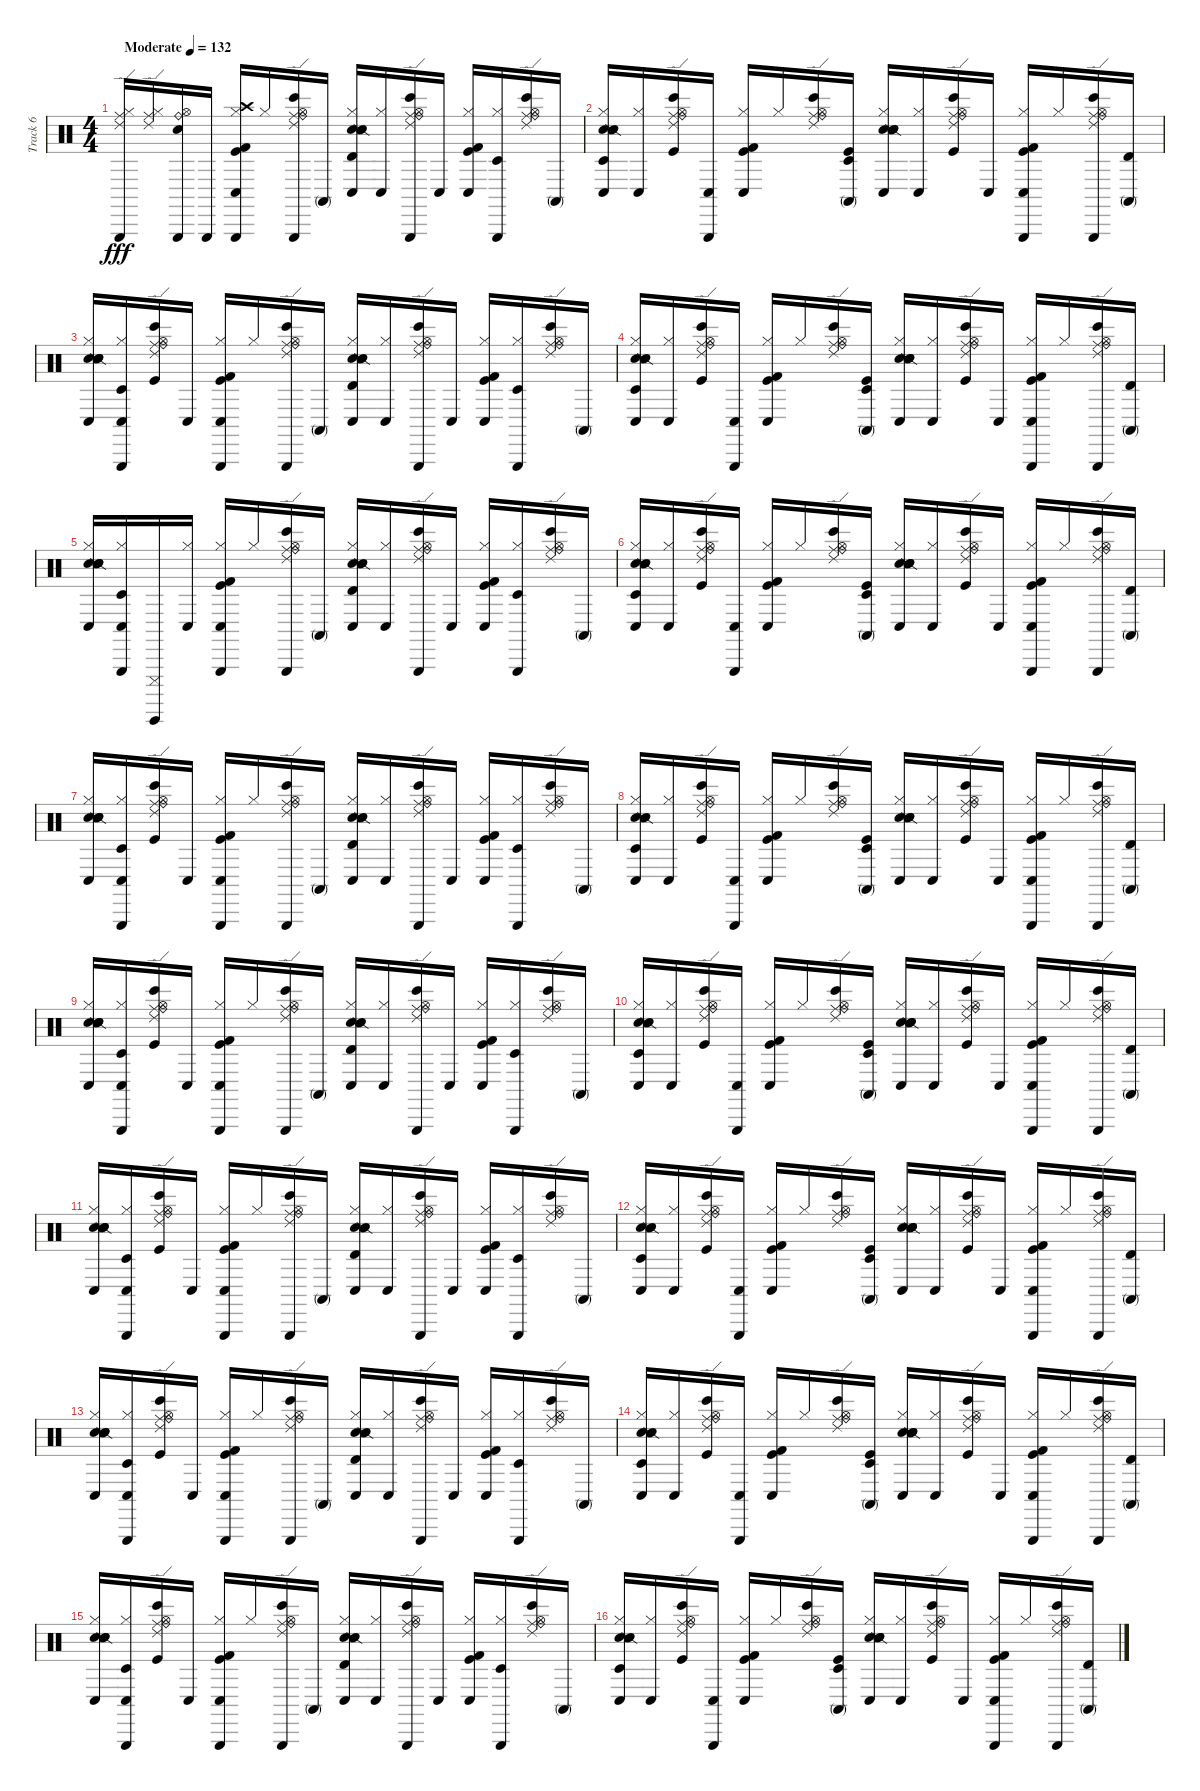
\track ("Track 6" "Track 6") {instrument percussion}
\staff {score}
\articulation defaults
\ts (4 4)
\tempo (132 "Moderate")
\clef neutral
\ks c
("Triangle (hit)" "Hi-Hat (closed)" "Ride (middle)" "Ride (edge) 2").16{dy fff} ("Hi-Hat (closed)" "Ride (edge) 2" "Ride (middle)").16 ("Triangle (hit)" "Hand Clap (hit)" "Hi-Hat (open)" "Ride (bell)").16 "Triangle (hit)".16 ("Hi-Hat (closed)" "Kick (hit)" "Kick (hit) 2" "Conga low (hit)" "Triangle (hit)" "Crash high (hit)").16 "Hi-Hat (closed)".16 ("Hi-Hat (open)" "Bongo High (hit)" "Ride (middle)" "Ride (edge) 2" "Ride (bell)" "Triangle (hit)").16 "Conga high (mute)".16 ("Hi-Hat (closed)" "Metronome (bell)" "Snare (side stick) 2" "Electric Snare (hit)" "Conga low (hit)" "Timbale high (hit)").16 ("Hi-Hat (closed)" "Conga low (hit)").16 ("Hi-Hat (open)" "Bongo High (hit)" "Ride (middle)" "Ride (edge) 2" "Ride (bell)" "Triangle (hit)").16 "Conga low (hit)".16 ("Hi-Hat (closed)" "Kick (hit)" "Kick (hit) 2" "Conga low (hit)").16 ("Hi-Hat (closed)" "Timbale low (hit)" "Triangle (hit)").16 ("Hi-Hat (open)" "Bongo High (hit)" "Ride (middle)" "Ride (edge) 2" "Ride (bell)").16 "Conga high (mute)".16 |
("Hi-Hat (closed)" "Metronome (bell)" "Snare (side stick) 2" "Electric Snare (hit)" "Conga low (hit)" "Timbale low (hit)").16 ("Hi-Hat (closed)" "Conga low (hit)").16 ("Hi-Hat (open)" "Kick (hit)" "Bongo High (hit)" "Ride (middle)" "Ride (edge) 2" "Ride (bell)").16 ("Conga low (hit)" "Triangle (hit)").16 ("Kick (hit)" "Kick (hit) 2" "Hi-Hat (closed)" "Conga low (hit)").16 "Hi-Hat (closed)".16 ("Hi-Hat (open)" "Bongo High (hit)" "Ride (middle)" "Ride (edge) 2" "Ride (bell)").16 ("Kick (hit)" "Conga high (mute)" "Timbale low (hit)").16 ("Metronome (bell)" "Snare (side stick) 2" "Electric Snare (hit)" "Hi-Hat (closed)" "Conga low (hit)" "Hand Clap (hit)").16 ("Hi-Hat (closed)" "Conga low (hit)").16 ("Kick (hit)" "Hi-Hat (open)" "Bongo High (hit)" "Ride (middle)" "Ride (edge) 2" "Ride (bell)").16 "Conga low (hit)".16 ("Kick (hit)" "Kick (hit) 2" "Hi-Hat (closed)" "Conga low (hit)" "Triangle (hit)").16 "Hi-Hat (closed)".16 ("Hi-Hat (open)" "Bongo High (hit)" "Ride (middle)" "Ride (edge) 2" "Ride (bell)" "Triangle (hit)").16 ("Conga high (mute)" "Timbale high (hit)").16 |
("Metronome (bell)" "Snare (side stick) 2" "Electric Snare (hit)" "Hi-Hat (closed)" "Conga low (hit)" "Hand Clap (hit)").16 ("Hi-Hat (closed)" "Conga low (hit)" "Timbale low (hit)" "Triangle (hit)").16 ("Kick (hit)" "Hi-Hat (open)" "Bongo High (hit)" "Ride (middle)" "Ride (edge) 2" "Ride (bell)").16 "Conga low (hit)".16 ("Hi-Hat (closed)" "Kick (hit)" "Kick (hit) 2" "Conga low (hit)" "Triangle (hit)").16 "Hi-Hat (closed)".16 ("Hi-Hat (open)" "Bongo High (hit)" "Ride (middle)" "Ride (edge) 2" "Ride (bell)" "Triangle (hit)").16 "Conga high (mute)".16 ("Hi-Hat (closed)" "Metronome (bell)" "Snare (side stick) 2" "Electric Snare (hit)" "Conga low (hit)" "Timbale high (hit)").16 ("Hi-Hat (closed)" "Conga low (hit)").16 ("Hi-Hat (open)" "Bongo High (hit)" "Ride (middle)" "Ride (edge) 2" "Ride (bell)" "Triangle (hit)").16 "Conga low (hit)".16 ("Hi-Hat (closed)" "Kick (hit)" "Kick (hit) 2" "Conga low (hit)").16 ("Hi-Hat (closed)" "Timbale low (hit)" "Triangle (hit)").16 ("Hi-Hat (open)" "Bongo High (hit)" "Ride (middle)" "Ride (edge) 2" "Ride (bell)").16 "Conga high (mute)".16 |
("Hi-Hat (closed)" "Metronome (bell)" "Snare (side stick) 2" "Electric Snare (hit)" "Conga low (hit)" "Timbale low (hit)").16 ("Hi-Hat (closed)" "Conga low (hit)").16 ("Hi-Hat (open)" "Kick (hit)" "Bongo High (hit)" "Ride (middle)" "Ride (edge) 2" "Ride (bell)").16 ("Conga low (hit)" "Triangle (hit)").16 ("Kick (hit)" "Kick (hit) 2" "Hi-Hat (closed)" "Conga low (hit)").16 "Hi-Hat (closed)".16 ("Hi-Hat (open)" "Bongo High (hit)" "Ride (middle)" "Ride (edge) 2" "Ride (bell)").16 ("Kick (hit)" "Conga high (mute)" "Timbale low (hit)").16 ("Metronome (bell)" "Snare (side stick) 2" "Electric Snare (hit)" "Hi-Hat (closed)" "Conga low (hit)" "Hand Clap (hit)").16 ("Hi-Hat (closed)" "Conga low (hit)").16 ("Kick (hit)" "Hi-Hat (open)" "Bongo High (hit)" "Ride (middle)" "Ride (edge) 2" "Ride (bell)").16 "Conga low (hit)".16 ("Kick (hit)" "Kick (hit) 2" "Hi-Hat (closed)" "Conga low (hit)" "Triangle (hit)").16 "Hi-Hat (closed)".16 ("Hi-Hat (open)" "Bongo High (hit)" "Ride (middle)" "Ride (edge) 2" "Ride (bell)" "Triangle (hit)").16 ("Conga high (mute)" "Timbale high (hit)").16 |
("Metronome (bell)" "Snare (side stick) 2" "Electric Snare (hit)" "Hi-Hat (closed)" "Conga low (hit)" "Hand Clap (hit)").16 ("Hi-Hat (closed)" "Conga low (hit)" "Timbale low (hit)" "Triangle (hit)").16 ("Cuica (mute)" "Guiro (hit)").16 ("Conga low (hit)" "Hi-Hat (closed)").16 ("Hi-Hat (closed)" "Kick (hit)" "Kick (hit) 2" "Conga low (hit)" "Triangle (hit)").16 "Hi-Hat (closed)".16 ("Hi-Hat (open)" "Bongo High (hit)" "Ride (middle)" "Ride (edge) 2" "Ride (bell)" "Triangle (hit)").16 "Conga high (mute)".16 ("Hi-Hat (closed)" "Metronome (bell)" "Snare (side stick) 2" "Electric Snare (hit)" "Conga low (hit)" "Timbale high (hit)").16 ("Hi-Hat (closed)" "Conga low (hit)").16 ("Hi-Hat (open)" "Bongo High (hit)" "Ride (middle)" "Ride (edge) 2" "Ride (bell)" "Triangle (hit)").16 "Conga low (hit)".16 ("Hi-Hat (closed)" "Kick (hit)" "Kick (hit) 2" "Conga low (hit)").16 ("Hi-Hat (closed)" "Timbale low (hit)" "Triangle (hit)").16 ("Hi-Hat (open)" "Bongo High (hit)" "Ride (middle)" "Ride (edge) 2" "Ride (bell)").16 "Conga high (mute)".16 |
("Hi-Hat (closed)" "Metronome (bell)" "Snare (side stick) 2" "Electric Snare (hit)" "Conga low (hit)" "Timbale low (hit)").16 ("Hi-Hat (closed)" "Conga low (hit)").16 ("Hi-Hat (open)" "Kick (hit)" "Bongo High (hit)" "Ride (middle)" "Ride (edge) 2" "Ride (bell)").16 ("Conga low (hit)" "Triangle (hit)").16 ("Kick (hit)" "Kick (hit) 2" "Hi-Hat (closed)" "Conga low (hit)").16 "Hi-Hat (closed)".16 ("Hi-Hat (open)" "Bongo High (hit)" "Ride (middle)" "Ride (edge) 2" "Ride (bell)").16 ("Kick (hit)" "Conga high (mute)" "Timbale low (hit)").16 ("Metronome (bell)" "Snare (side stick) 2" "Electric Snare (hit)" "Hi-Hat (closed)" "Conga low (hit)" "Hand Clap (hit)").16 ("Hi-Hat (closed)" "Conga low (hit)").16 ("Kick (hit)" "Hi-Hat (open)" "Bongo High (hit)" "Ride (middle)" "Ride (edge) 2" "Ride (bell)").16 "Conga low (hit)".16 ("Kick (hit)" "Kick (hit) 2" "Hi-Hat (closed)" "Conga low (hit)" "Triangle (hit)").16 "Hi-Hat (closed)".16 ("Hi-Hat (open)" "Bongo High (hit)" "Ride (middle)" "Ride (edge) 2" "Ride (bell)" "Triangle (hit)").16 ("Conga high (mute)" "Timbale high (hit)").16 |
("Metronome (bell)" "Snare (side stick) 2" "Electric Snare (hit)" "Hi-Hat (closed)" "Conga low (hit)" "Hand Clap (hit)").16 ("Hi-Hat (closed)" "Conga low (hit)" "Timbale low (hit)" "Triangle (hit)").16 ("Kick (hit)" "Hi-Hat (open)" "Bongo High (hit)" "Ride (middle)" "Ride (edge) 2" "Ride (bell)").16 "Conga low (hit)".16 ("Hi-Hat (closed)" "Kick (hit)" "Kick (hit) 2" "Conga low (hit)" "Triangle (hit)").16 "Hi-Hat (closed)".16 ("Hi-Hat (open)" "Bongo High (hit)" "Ride (middle)" "Ride (edge) 2" "Ride (bell)" "Triangle (hit)").16 "Conga high (mute)".16 ("Hi-Hat (closed)" "Metronome (bell)" "Snare (side stick) 2" "Electric Snare (hit)" "Conga low (hit)" "Timbale high (hit)").16 ("Hi-Hat (closed)" "Conga low (hit)").16 ("Hi-Hat (open)" "Bongo High (hit)" "Ride (middle)" "Ride (edge) 2" "Ride (bell)" "Triangle (hit)").16 "Conga low (hit)".16 ("Hi-Hat (closed)" "Kick (hit)" "Kick (hit) 2" "Conga low (hit)").16 ("Hi-Hat (closed)" "Timbale low (hit)" "Triangle (hit)").16 ("Hi-Hat (open)" "Bongo High (hit)" "Ride (middle)" "Ride (edge) 2" "Ride (bell)").16 "Conga high (mute)".16 |
("Hi-Hat (closed)" "Metronome (bell)" "Snare (side stick) 2" "Electric Snare (hit)" "Conga low (hit)" "Timbale low (hit)").16 ("Hi-Hat (closed)" "Conga low (hit)").16 ("Hi-Hat (open)" "Kick (hit)" "Bongo High (hit)" "Ride (middle)" "Ride (edge) 2" "Ride (bell)").16 ("Conga low (hit)" "Triangle (hit)").16 ("Kick (hit)" "Kick (hit) 2" "Hi-Hat (closed)" "Conga low (hit)").16 "Hi-Hat (closed)".16 ("Hi-Hat (open)" "Bongo High (hit)" "Ride (middle)" "Ride (edge) 2" "Ride (bell)").16 ("Kick (hit)" "Conga high (mute)" "Timbale low (hit)").16 ("Metronome (bell)" "Snare (side stick) 2" "Electric Snare (hit)" "Hi-Hat (closed)" "Conga low (hit)" "Hand Clap (hit)").16 ("Hi-Hat (closed)" "Conga low (hit)").16 ("Kick (hit)" "Hi-Hat (open)" "Bongo High (hit)" "Ride (middle)" "Ride (edge) 2" "Ride (bell)").16 "Conga low (hit)".16 ("Kick (hit)" "Kick (hit) 2" "Hi-Hat (closed)" "Conga low (hit)" "Triangle (hit)").16 "Hi-Hat (closed)".16 ("Hi-Hat (open)" "Bongo High (hit)" "Ride (middle)" "Ride (edge) 2" "Ride (bell)" "Triangle (hit)").16 ("Conga high (mute)" "Timbale high (hit)").16 |
("Metronome (bell)" "Snare (side stick) 2" "Electric Snare (hit)" "Hi-Hat (closed)" "Conga low (hit)" "Hand Clap (hit)").16 ("Hi-Hat (closed)" "Conga low (hit)" "Timbale low (hit)" "Triangle (hit)").16 ("Kick (hit)" "Hi-Hat (open)" "Bongo High (hit)" "Ride (middle)" "Ride (edge) 2" "Ride (bell)").16 "Conga low (hit)".16 ("Hi-Hat (closed)" "Kick (hit)" "Kick (hit) 2" "Conga low (hit)" "Triangle (hit)").16 "Hi-Hat (closed)".16 ("Hi-Hat (open)" "Bongo High (hit)" "Ride (middle)" "Ride (edge) 2" "Ride (bell)" "Triangle (hit)").16 "Conga high (mute)".16 ("Hi-Hat (closed)" "Metronome (bell)" "Snare (side stick) 2" "Electric Snare (hit)" "Conga low (hit)" "Timbale high (hit)").16 ("Hi-Hat (closed)" "Conga low (hit)").16 ("Hi-Hat (open)" "Bongo High (hit)" "Ride (middle)" "Ride (edge) 2" "Ride (bell)" "Triangle (hit)").16 "Conga low (hit)".16 ("Hi-Hat (closed)" "Kick (hit)" "Kick (hit) 2" "Conga low (hit)").16 ("Hi-Hat (closed)" "Timbale low (hit)" "Triangle (hit)").16 ("Hi-Hat (open)" "Bongo High (hit)" "Ride (middle)" "Ride (edge) 2" "Ride (bell)").16 "Conga high (mute)".16 |
("Hi-Hat (closed)" "Metronome (bell)" "Snare (side stick) 2" "Electric Snare (hit)" "Conga low (hit)" "Timbale low (hit)").16 ("Hi-Hat (closed)" "Conga low (hit)").16 ("Hi-Hat (open)" "Kick (hit)" "Bongo High (hit)" "Ride (middle)" "Ride (edge) 2" "Ride (bell)").16 ("Conga low (hit)" "Triangle (hit)").16 ("Kick (hit)" "Kick (hit) 2" "Hi-Hat (closed)" "Conga low (hit)").16 "Hi-Hat (closed)".16 ("Hi-Hat (open)" "Bongo High (hit)" "Ride (middle)" "Ride (edge) 2" "Ride (bell)").16 ("Kick (hit)" "Conga high (mute)" "Timbale low (hit)").16 ("Metronome (bell)" "Snare (side stick) 2" "Electric Snare (hit)" "Hi-Hat (closed)" "Conga low (hit)" "Hand Clap (hit)").16 ("Hi-Hat (closed)" "Conga low (hit)").16 ("Kick (hit)" "Hi-Hat (open)" "Bongo High (hit)" "Ride (middle)" "Ride (edge) 2" "Ride (bell)").16 "Conga low (hit)".16 ("Kick (hit)" "Kick (hit) 2" "Hi-Hat (closed)" "Conga low (hit)" "Triangle (hit)").16 "Hi-Hat (closed)".16 ("Hi-Hat (open)" "Bongo High (hit)" "Ride (middle)" "Ride (edge) 2" "Ride (bell)" "Triangle (hit)").16 ("Conga high (mute)" "Timbale high (hit)").16 |
("Metronome (bell)" "Snare (side stick) 2" "Electric Snare (hit)" "Hi-Hat (closed)" "Conga low (hit)" "Hand Clap (hit)").16 ("Hi-Hat (closed)" "Conga low (hit)" "Timbale low (hit)" "Triangle (hit)").16 ("Kick (hit)" "Hi-Hat (open)" "Bongo High (hit)" "Ride (middle)" "Ride (edge) 2" "Ride (bell)").16 "Conga low (hit)".16 ("Hi-Hat (closed)" "Kick (hit)" "Kick (hit) 2" "Conga low (hit)" "Triangle (hit)").16 "Hi-Hat (closed)".16 ("Hi-Hat (open)" "Bongo High (hit)" "Ride (middle)" "Ride (edge) 2" "Ride (bell)" "Triangle (hit)").16 "Conga high (mute)".16 ("Hi-Hat (closed)" "Metronome (bell)" "Snare (side stick) 2" "Electric Snare (hit)" "Conga low (hit)" "Timbale high (hit)").16 ("Hi-Hat (closed)" "Conga low (hit)").16 ("Hi-Hat (open)" "Bongo High (hit)" "Ride (middle)" "Ride (edge) 2" "Ride (bell)" "Triangle (hit)").16 "Conga low (hit)".16 ("Hi-Hat (closed)" "Kick (hit)" "Kick (hit) 2" "Conga low (hit)").16 ("Hi-Hat (closed)" "Timbale low (hit)" "Triangle (hit)").16 ("Hi-Hat (open)" "Bongo High (hit)" "Ride (middle)" "Ride (edge) 2" "Ride (bell)").16 "Conga high (mute)".16 |
("Hi-Hat (closed)" "Metronome (bell)" "Snare (side stick) 2" "Electric Snare (hit)" "Conga low (hit)" "Timbale low (hit)").16 ("Hi-Hat (closed)" "Conga low (hit)").16 ("Hi-Hat (open)" "Kick (hit)" "Bongo High (hit)" "Ride (middle)" "Ride (edge) 2" "Ride (bell)").16 ("Conga low (hit)" "Triangle (hit)").16 ("Kick (hit)" "Kick (hit) 2" "Hi-Hat (closed)" "Conga low (hit)").16 "Hi-Hat (closed)".16 ("Hi-Hat (open)" "Bongo High (hit)" "Ride (middle)" "Ride (edge) 2" "Ride (bell)").16 ("Kick (hit)" "Conga high (mute)" "Timbale low (hit)").16 ("Metronome (bell)" "Snare (side stick) 2" "Electric Snare (hit)" "Hi-Hat (closed)" "Conga low (hit)" "Hand Clap (hit)").16 ("Hi-Hat (closed)" "Conga low (hit)").16 ("Kick (hit)" "Hi-Hat (open)" "Bongo High (hit)" "Ride (middle)" "Ride (edge) 2" "Ride (bell)").16 "Conga low (hit)".16 ("Kick (hit)" "Kick (hit) 2" "Hi-Hat (closed)" "Conga low (hit)" "Triangle (hit)").16 "Hi-Hat (closed)".16 ("Hi-Hat (open)" "Bongo High (hit)" "Ride (middle)" "Ride (edge) 2" "Ride (bell)" "Triangle (hit)").16 ("Conga high (mute)" "Timbale high (hit)").16 |
("Metronome (bell)" "Snare (side stick) 2" "Electric Snare (hit)" "Hi-Hat (closed)" "Conga low (hit)" "Hand Clap (hit)").16 ("Hi-Hat (closed)" "Conga low (hit)" "Timbale low (hit)" "Triangle (hit)").16 ("Kick (hit)" "Hi-Hat (open)" "Bongo High (hit)" "Ride (middle)" "Ride (edge) 2" "Ride (bell)").16 "Conga low (hit)".16 ("Hi-Hat (closed)" "Kick (hit)" "Kick (hit) 2" "Conga low (hit)" "Triangle (hit)").16 "Hi-Hat (closed)".16 ("Hi-Hat (open)" "Bongo High (hit)" "Ride (middle)" "Ride (edge) 2" "Ride (bell)" "Triangle (hit)").16 "Conga high (mute)".16 ("Hi-Hat (closed)" "Metronome (bell)" "Snare (side stick) 2" "Electric Snare (hit)" "Conga low (hit)" "Timbale high (hit)").16 ("Hi-Hat (closed)" "Conga low (hit)").16 ("Hi-Hat (open)" "Bongo High (hit)" "Ride (middle)" "Ride (edge) 2" "Ride (bell)" "Triangle (hit)").16 "Conga low (hit)".16 ("Hi-Hat (closed)" "Kick (hit)" "Kick (hit) 2" "Conga low (hit)").16 ("Hi-Hat (closed)" "Timbale low (hit)" "Triangle (hit)").16 ("Hi-Hat (open)" "Bongo High (hit)" "Ride (middle)" "Ride (edge) 2" "Ride (bell)").16 "Conga high (mute)".16 |
("Hi-Hat (closed)" "Metronome (bell)" "Snare (side stick) 2" "Electric Snare (hit)" "Conga low (hit)" "Timbale low (hit)").16 ("Hi-Hat (closed)" "Conga low (hit)").16 ("Hi-Hat (open)" "Kick (hit)" "Bongo High (hit)" "Ride (middle)" "Ride (edge) 2" "Ride (bell)").16 ("Conga low (hit)" "Triangle (hit)").16 ("Kick (hit)" "Kick (hit) 2" "Hi-Hat (closed)" "Conga low (hit)").16 "Hi-Hat (closed)".16 ("Hi-Hat (open)" "Bongo High (hit)" "Ride (middle)" "Ride (edge) 2" "Ride (bell)").16 ("Kick (hit)" "Conga high (mute)" "Timbale low (hit)").16 ("Metronome (bell)" "Snare (side stick) 2" "Electric Snare (hit)" "Hi-Hat (closed)" "Conga low (hit)" "Hand Clap (hit)").16 ("Hi-Hat (closed)" "Conga low (hit)").16 ("Kick (hit)" "Hi-Hat (open)" "Bongo High (hit)" "Ride (middle)" "Ride (edge) 2" "Ride (bell)").16 "Conga low (hit)".16 ("Kick (hit)" "Kick (hit) 2" "Hi-Hat (closed)" "Conga low (hit)" "Triangle (hit)").16 "Hi-Hat (closed)".16 ("Hi-Hat (open)" "Bongo High (hit)" "Ride (middle)" "Ride (edge) 2" "Ride (bell)" "Triangle (hit)").16 ("Conga high (mute)" "Timbale high (hit)").16 |
("Metronome (bell)" "Snare (side stick) 2" "Electric Snare (hit)" "Hi-Hat (closed)" "Conga low (hit)" "Hand Clap (hit)").16 ("Hi-Hat (closed)" "Conga low (hit)" "Timbale low (hit)" "Triangle (hit)").16 ("Kick (hit)" "Hi-Hat (open)" "Bongo High (hit)" "Ride (middle)" "Ride (edge) 2" "Ride (bell)").16 "Conga low (hit)".16 ("Hi-Hat (closed)" "Kick (hit)" "Kick (hit) 2" "Conga low (hit)" "Triangle (hit)").16 "Hi-Hat (closed)".16 ("Hi-Hat (open)" "Bongo High (hit)" "Ride (middle)" "Ride (edge) 2" "Ride (bell)" "Triangle (hit)").16 "Conga high (mute)".16 ("Hi-Hat (closed)" "Metronome (bell)" "Snare (side stick) 2" "Electric Snare (hit)" "Conga low (hit)" "Timbale high (hit)").16 ("Hi-Hat (closed)" "Conga low (hit)").16 ("Hi-Hat (open)" "Bongo High (hit)" "Ride (middle)" "Ride (edge) 2" "Ride (bell)" "Triangle (hit)").16 "Conga low (hit)".16 ("Hi-Hat (closed)" "Kick (hit)" "Kick (hit) 2" "Conga low (hit)").16 ("Hi-Hat (closed)" "Timbale low (hit)" "Triangle (hit)").16 ("Hi-Hat (open)" "Bongo High (hit)" "Ride (middle)" "Ride (edge) 2" "Ride (bell)").16 "Conga high (mute)".16 |
("Hi-Hat (closed)" "Metronome (bell)" "Snare (side stick) 2" "Electric Snare (hit)" "Conga low (hit)" "Timbale low (hit)").16 ("Hi-Hat (closed)" "Conga low (hit)").16 ("Hi-Hat (open)" "Kick (hit)" "Bongo High (hit)" "Ride (middle)" "Ride (edge) 2" "Ride (bell)").16 ("Conga low (hit)" "Triangle (hit)").16 ("Kick (hit)" "Kick (hit) 2" "Hi-Hat (closed)" "Conga low (hit)").16 "Hi-Hat (closed)".16 ("Hi-Hat (open)" "Bongo High (hit)" "Ride (middle)" "Ride (edge) 2" "Ride (bell)").16 ("Kick (hit)" "Conga high (mute)" "Timbale low (hit)").16 ("Metronome (bell)" "Snare (side stick) 2" "Electric Snare (hit)" "Hi-Hat (closed)" "Conga low (hit)" "Hand Clap (hit)").16 ("Hi-Hat (closed)" "Conga low (hit)").16 ("Kick (hit)" "Hi-Hat (open)" "Bongo High (hit)" "Ride (middle)" "Ride (edge) 2" "Ride (bell)").16 "Conga low (hit)".16 ("Kick (hit)" "Kick (hit) 2" "Hi-Hat (closed)" "Conga low (hit)" "Triangle (hit)").16 "Hi-Hat (closed)".16 ("Hi-Hat (open)" "Bongo High (hit)" "Ride (middle)" "Ride (edge) 2" "Ride (bell)" "Triangle (hit)").16 ("Conga high (mute)" "Timbale high (hit)").16
